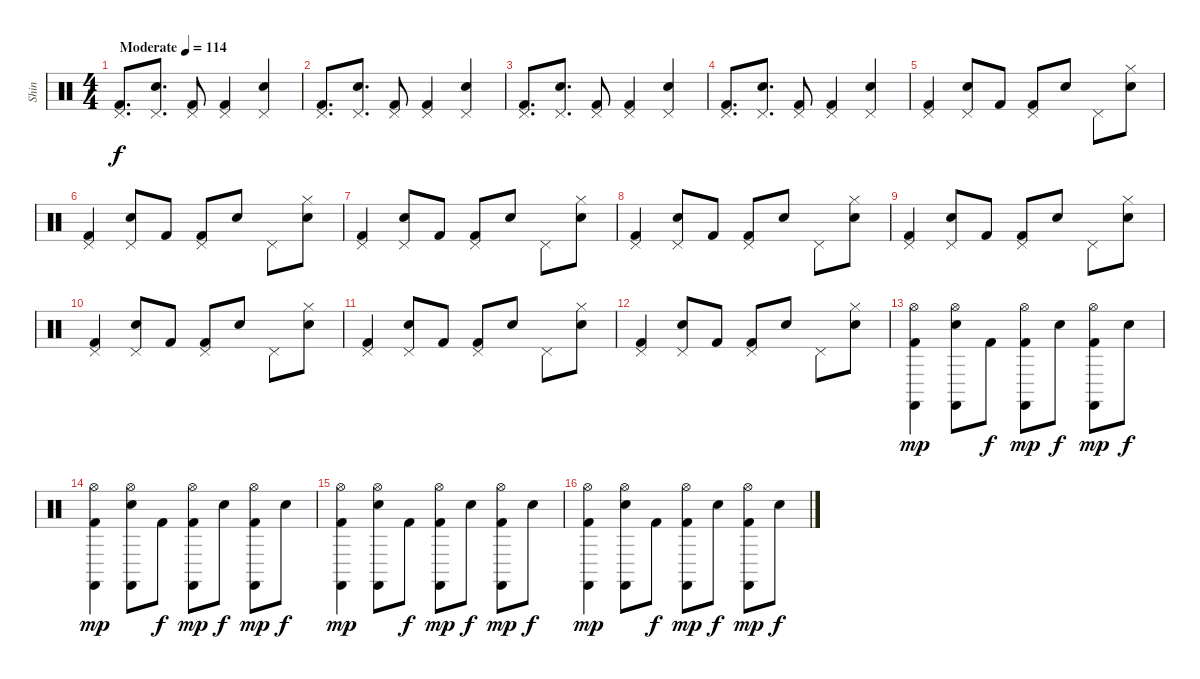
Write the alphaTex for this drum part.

\track ("Shin" "Shin") {instrument percussion}
\staff {score}
\articulation defaults
\ts (4 4)
\tempo (114 "Moderate")
\clef neutral
\ks c
("Pedal Hi-Hat (hit)" "Kick (hit) 2").8{d dy f} ("Pedal Hi-Hat (hit)" "Electric Snare (hit)").8{d} ("Pedal Hi-Hat (hit)" "Kick (hit) 2").8 ("Pedal Hi-Hat (hit)" "Kick (hit) 2").4 ("Pedal Hi-Hat (hit)" "Electric Snare (hit)").4 |
("Pedal Hi-Hat (hit)" "Kick (hit) 2").8{d} ("Pedal Hi-Hat (hit)" "Electric Snare (hit)").8{d} ("Pedal Hi-Hat (hit)" "Kick (hit) 2").8 ("Pedal Hi-Hat (hit)" "Kick (hit) 2").4 ("Pedal Hi-Hat (hit)" "Electric Snare (hit)").4 |
("Pedal Hi-Hat (hit)" "Kick (hit) 2").8{d} ("Pedal Hi-Hat (hit)" "Electric Snare (hit)").8{d} ("Pedal Hi-Hat (hit)" "Kick (hit) 2").8 ("Pedal Hi-Hat (hit)" "Kick (hit) 2").4 ("Pedal Hi-Hat (hit)" "Electric Snare (hit)").4 |
("Pedal Hi-Hat (hit)" "Kick (hit) 2").8{d} ("Pedal Hi-Hat (hit)" "Electric Snare (hit)").8{d} ("Pedal Hi-Hat (hit)" "Kick (hit) 2").8 ("Pedal Hi-Hat (hit)" "Kick (hit) 2").4 ("Pedal Hi-Hat (hit)" "Electric Snare (hit)").4 |
("Pedal Hi-Hat (hit)" "Kick (hit) 2").4 ("Pedal Hi-Hat (hit)" "Electric Snare (hit)").8 "Kick (hit) 2".8 ("Pedal Hi-Hat (hit)" "Kick (hit) 2").8 "Electric Snare (hit)".8 "Pedal Hi-Hat (hit)".8 ("Hi-Hat (closed)" "Electric Snare (hit)").8 |
("Pedal Hi-Hat (hit)" "Kick (hit) 2").4 ("Pedal Hi-Hat (hit)" "Electric Snare (hit)").8 "Kick (hit) 2".8 ("Pedal Hi-Hat (hit)" "Kick (hit) 2").8 "Electric Snare (hit)".8 "Pedal Hi-Hat (hit)".8 ("Hi-Hat (closed)" "Electric Snare (hit)").8 |
("Pedal Hi-Hat (hit)" "Kick (hit) 2").4 ("Pedal Hi-Hat (hit)" "Electric Snare (hit)").8 "Kick (hit) 2".8 ("Pedal Hi-Hat (hit)" "Kick (hit) 2").8 "Electric Snare (hit)".8 "Pedal Hi-Hat (hit)".8 ("Hi-Hat (closed)" "Electric Snare (hit)").8 |
("Pedal Hi-Hat (hit)" "Kick (hit) 2").4 ("Pedal Hi-Hat (hit)" "Electric Snare (hit)").8 "Kick (hit) 2".8 ("Pedal Hi-Hat (hit)" "Kick (hit) 2").8 "Electric Snare (hit)".8 "Pedal Hi-Hat (hit)".8 ("Hi-Hat (closed)" "Electric Snare (hit)").8 |
("Pedal Hi-Hat (hit)" "Kick (hit) 2").4 ("Pedal Hi-Hat (hit)" "Electric Snare (hit)").8 "Kick (hit) 2".8 ("Pedal Hi-Hat (hit)" "Kick (hit) 2").8 "Electric Snare (hit)".8 "Pedal Hi-Hat (hit)".8 ("Hi-Hat (closed)" "Electric Snare (hit)").8 |
("Pedal Hi-Hat (hit)" "Kick (hit) 2").4 ("Pedal Hi-Hat (hit)" "Electric Snare (hit)").8 "Kick (hit) 2".8 ("Pedal Hi-Hat (hit)" "Kick (hit) 2").8 "Electric Snare (hit)".8 "Pedal Hi-Hat (hit)".8 ("Hi-Hat (closed)" "Electric Snare (hit)").8 |
("Pedal Hi-Hat (hit)" "Kick (hit) 2").4 ("Pedal Hi-Hat (hit)" "Electric Snare (hit)").8 "Kick (hit) 2".8 ("Pedal Hi-Hat (hit)" "Kick (hit) 2").8 "Electric Snare (hit)".8 "Pedal Hi-Hat (hit)".8 ("Hi-Hat (closed)" "Electric Snare (hit)").8 |
("Pedal Hi-Hat (hit)" "Kick (hit) 2").4 ("Pedal Hi-Hat (hit)" "Electric Snare (hit)").8 "Kick (hit) 2".8 ("Pedal Hi-Hat (hit)" "Kick (hit) 2").8 "Electric Snare (hit)".8 "Pedal Hi-Hat (hit)".8 ("Hi-Hat (closed)" "Electric Snare (hit)").8 |
("Castanets (hit)" "Hi-Hat (open)" "Kick (hit) 2").4{dy mp} ("Castanets (hit)" "Hi-Hat (open)" "Electric Snare (hit)").8 "Kick (hit) 2".8{dy f} ("Castanets (hit)" "Hi-Hat (open)" "Kick (hit) 2").8{dy mp} "Electric Snare (hit)".8{dy f} ("Castanets (hit)" "Hi-Hat (open)" "Kick (hit) 2").8{dy mp} "Electric Snare (hit)".8{dy f} |
("Castanets (hit)" "Hi-Hat (open)" "Kick (hit) 2").4{dy mp} ("Castanets (hit)" "Hi-Hat (open)" "Electric Snare (hit)").8 "Kick (hit) 2".8{dy f} ("Castanets (hit)" "Hi-Hat (open)" "Kick (hit) 2").8{dy mp} "Electric Snare (hit)".8{dy f} ("Castanets (hit)" "Hi-Hat (open)" "Kick (hit) 2").8{dy mp} "Electric Snare (hit)".8{dy f} |
("Castanets (hit)" "Hi-Hat (open)" "Kick (hit) 2").4{dy mp} ("Castanets (hit)" "Hi-Hat (open)" "Electric Snare (hit)").8 "Kick (hit) 2".8{dy f} ("Castanets (hit)" "Hi-Hat (open)" "Kick (hit) 2").8{dy mp} "Electric Snare (hit)".8{dy f} ("Castanets (hit)" "Hi-Hat (open)" "Kick (hit) 2").8{dy mp} "Electric Snare (hit)".8{dy f} |
("Castanets (hit)" "Hi-Hat (open)" "Kick (hit) 2").4{dy mp} ("Castanets (hit)" "Hi-Hat (open)" "Electric Snare (hit)").8 "Kick (hit) 2".8{dy f} ("Castanets (hit)" "Hi-Hat (open)" "Kick (hit) 2").8{dy mp} "Electric Snare (hit)".8{dy f} ("Castanets (hit)" "Hi-Hat (open)" "Kick (hit) 2").8{dy mp} "Electric Snare (hit)".8{dy f}
